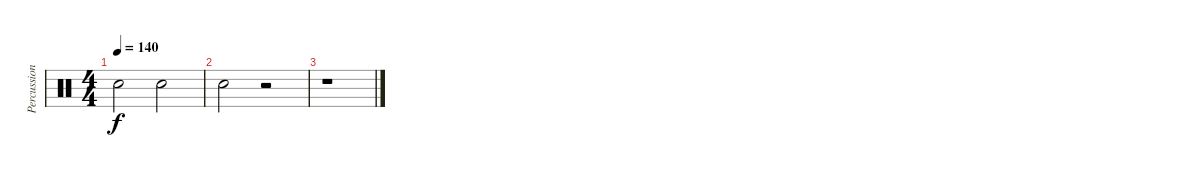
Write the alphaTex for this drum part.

\track ("Percussions" "Percussion") {instrument percussion}
\staff {score}
\articulation defaults
\ts (4 4)
\tempo 140
\clef neutral
\ks c "Hand Clap (hit)".2{dy f} "Hand Clap (hit)".2
|
"Hand Clap (hit)".2 r.2 |
r.1
